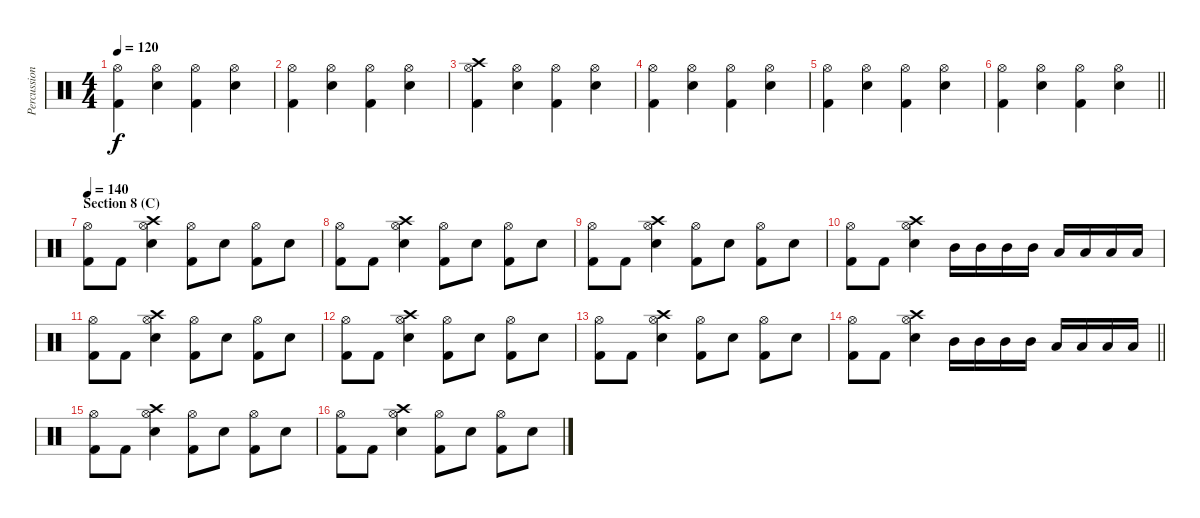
\track ("Percussion" "Percussion") {instrument percussion}
\staff {score}
\articulation defaults
\ts (4 4)
\tempo 120
\clef neutral
\ks c
("Hi-Hat (open)" "Kick (hit) 2").4{dy f} ("Hi-Hat (open)" "Snare (hit) 2").4 ("Hi-Hat (open)" "Kick (hit) 2").4 ("Hi-Hat (open)" "Snare (hit) 2").4 |
("Hi-Hat (open)" "Kick (hit) 2").4 ("Hi-Hat (open)" "Snare (hit) 2").4 ("Hi-Hat (open)" "Kick (hit) 2").4 ("Hi-Hat (open)" "Snare (hit) 2").4 |
("Crash high (hit)" "Hi-Hat (open)" "Kick (hit) 2").4 ("Hi-Hat (open)" "Snare (hit) 2").4 ("Hi-Hat (open)" "Kick (hit) 2").4 ("Hi-Hat (open)" "Snare (hit) 2").4 |
("Hi-Hat (open)" "Kick (hit) 2").4 ("Hi-Hat (open)" "Snare (hit) 2").4 ("Hi-Hat (open)" "Kick (hit) 2").4 ("Hi-Hat (open)" "Snare (hit) 2").4 |
("Hi-Hat (open)" "Kick (hit) 2").4 ("Hi-Hat (open)" "Snare (hit) 2").4 ("Hi-Hat (open)" "Kick (hit) 2").4 ("Hi-Hat (open)" "Snare (hit) 2").4 |
\barLineRight lightlight
("Hi-Hat (open)" "Kick (hit) 2").4 ("Hi-Hat (open)" "Snare (hit) 2").4 ("Hi-Hat (open)" "Kick (hit) 2").4 ("Hi-Hat (open)" "Snare (hit) 2").4 |
\section ("" "Section 8 (C)")
\tempo 140
("Hi-Hat (open)" "Kick (hit) 2").8 "Kick (hit) 2".8 ("Crash high (hit)" "Hi-Hat (open)" "Snare (hit) 2").4 ("Hi-Hat (open)" "Kick (hit) 2").8 "Snare (hit) 2".8 ("Hi-Hat (open)" "Kick (hit) 2").8 "Snare (hit) 2".8 |
("Hi-Hat (open)" "Kick (hit) 2").8 "Kick (hit) 2".8 ("Crash high (hit)" "Hi-Hat (open)" "Snare (hit) 2").4 ("Hi-Hat (open)" "Kick (hit) 2").8 "Snare (hit) 2".8 ("Hi-Hat (open)" "Kick (hit) 2").8 "Snare (hit) 2".8 |
("Hi-Hat (open)" "Kick (hit) 2").8 "Kick (hit) 2".8 ("Crash high (hit)" "Hi-Hat (open)" "Snare (hit) 2").4 ("Hi-Hat (open)" "Kick (hit) 2").8 "Snare (hit) 2".8 ("Hi-Hat (open)" "Kick (hit) 2").8 "Snare (hit) 2".8 |
("Hi-Hat (open)" "Kick (hit) 2").8 "Kick (hit) 2".8 ("Crash high (hit)" "Hi-Hat (open)" "Snare (hit) 2").4 "Mid Tom (hit)".16 "Mid Tom (hit)".16 "Mid Tom (hit)".16 "Mid Tom (hit)".16 "Low Tom (hit)".16 "Low Tom (hit)".16 "Low Tom (hit)".16 "Low Tom (hit)".16 |
("Hi-Hat (open)" "Kick (hit) 2").8 "Kick (hit) 2".8 ("Crash high (hit)" "Hi-Hat (open)" "Snare (hit) 2").4 ("Hi-Hat (open)" "Kick (hit) 2").8 "Snare (hit) 2".8 ("Hi-Hat (open)" "Kick (hit) 2").8 "Snare (hit) 2".8 |
("Hi-Hat (open)" "Kick (hit) 2").8 "Kick (hit) 2".8 ("Crash high (hit)" "Hi-Hat (open)" "Snare (hit) 2").4 ("Hi-Hat (open)" "Kick (hit) 2").8 "Snare (hit) 2".8 ("Hi-Hat (open)" "Kick (hit) 2").8 "Snare (hit) 2".8 |
("Hi-Hat (open)" "Kick (hit) 2").8 "Kick (hit) 2".8 ("Crash high (hit)" "Hi-Hat (open)" "Snare (hit) 2").4 ("Hi-Hat (open)" "Kick (hit) 2").8 "Snare (hit) 2".8 ("Hi-Hat (open)" "Kick (hit) 2").8 "Snare (hit) 2".8 |
\barLineRight lightlight
("Hi-Hat (open)" "Kick (hit) 2").8 "Kick (hit) 2".8 ("Crash high (hit)" "Hi-Hat (open)" "Snare (hit) 2").4 "Mid Tom (hit)".16 "Mid Tom (hit)".16 "Mid Tom (hit)".16 "Mid Tom (hit)".16 "Low Tom (hit)".16 "Low Tom (hit)".16 "Low Tom (hit)".16 "Low Tom (hit)".16 |
("Hi-Hat (open)" "Kick (hit) 2").8 "Kick (hit) 2".8 ("Crash high (hit)" "Hi-Hat (open)" "Snare (hit) 2").4 ("Hi-Hat (open)" "Kick (hit) 2").8 "Snare (hit) 2".8 ("Hi-Hat (open)" "Kick (hit) 2").8 "Snare (hit) 2".8 |
("Hi-Hat (open)" "Kick (hit) 2").8 "Kick (hit) 2".8 ("Crash high (hit)" "Hi-Hat (open)" "Snare (hit) 2").4 ("Hi-Hat (open)" "Kick (hit) 2").8 "Snare (hit) 2".8 ("Hi-Hat (open)" "Kick (hit) 2").8 "Snare (hit) 2".8
